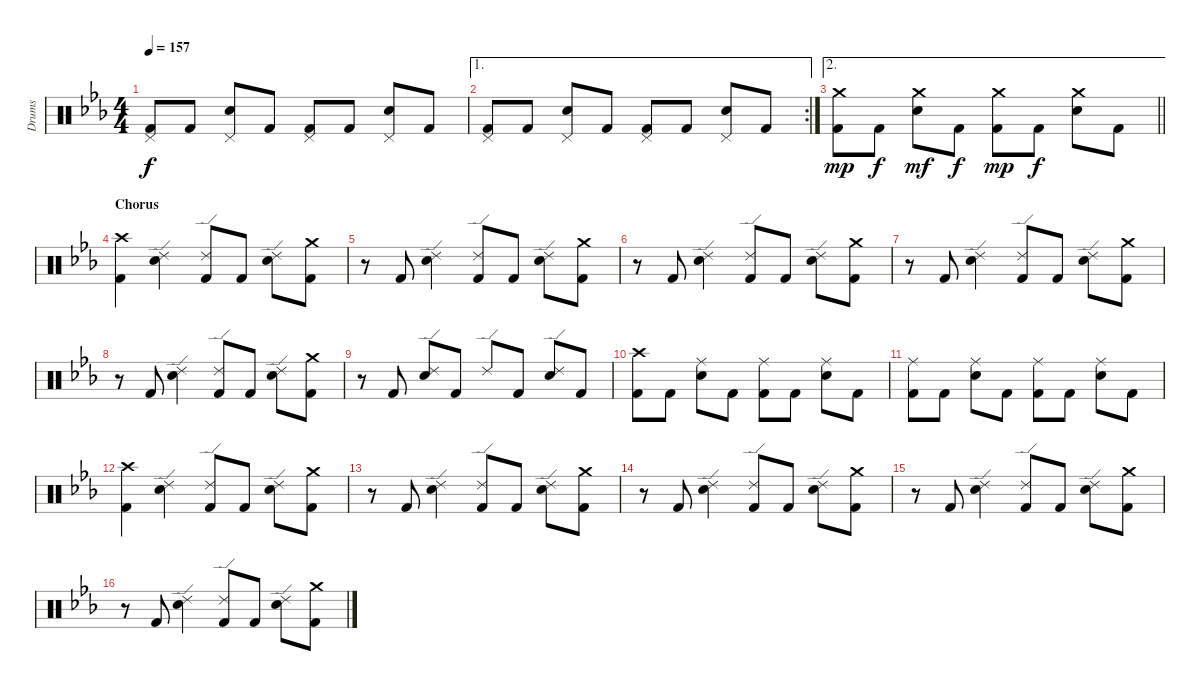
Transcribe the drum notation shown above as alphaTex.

\track ("Drums" "Drums") {instrument percussion}
\staff {score}
\articulation defaults
\ts (4 4)
\tempo 157
\clef neutral
\ks cminor
("Pedal Hi-Hat (hit)" "Kick (hit) 2").8{dy f} "Kick (hit) 2".8 ("Pedal Hi-Hat (hit)" "Electric Snare (hit)").8 "Kick (hit) 2".8 ("Pedal Hi-Hat (hit)" "Kick (hit) 2").8 "Kick (hit) 2".8 ("Pedal Hi-Hat (hit)" "Electric Snare (hit)").8 "Kick (hit) 2".8 |
\ae 1
\rc 2
("Pedal Hi-Hat (hit)" "Kick (hit) 2").8 "Kick (hit) 2".8 ("Pedal Hi-Hat (hit)" "Electric Snare (hit)").8 "Kick (hit) 2".8 ("Pedal Hi-Hat (hit)" "Kick (hit) 2").8 "Kick (hit) 2".8 ("Pedal Hi-Hat (hit)" "Electric Snare (hit)").8 "Kick (hit) 2".8 |
\ae 2
\barLineRight lightlight
("Crash medium (hit)" "Kick (hit) 2").8{dy mp} "Kick (hit) 2".8{dy f} ("Crash medium (hit)" "Electric Snare (hit)").8{dy mf} "Kick (hit) 2".8{dy f} ("Crash medium (hit)" "Kick (hit) 2").8{dy mp} "Kick (hit) 2".8{dy f} ("Crash medium (hit)" "Electric Snare (hit)").8 "Kick (hit) 2".8 |
\section ("" "Chorus")
("Crash high (hit)" "Kick (hit) 2").4 ("Ride (edge) 2" "Electric Snare (hit)").4 ("Ride (edge) 2" "Kick (hit) 2").8 "Kick (hit) 2".8 ("Ride (edge) 2" "Electric Snare (hit)").8 ("Crash medium (hit)" "Kick (hit) 2").8 |
r.8 "Kick (hit) 2".8 ("Ride (edge) 2" "Electric Snare (hit)").4 ("Ride (edge) 2" "Kick (hit) 2").8 "Kick (hit) 2".8 ("Ride (edge) 2" "Electric Snare (hit)").8 ("Crash medium (hit)" "Kick (hit) 2").8 |
r.8 "Kick (hit) 2".8 ("Ride (edge) 2" "Electric Snare (hit)").4 ("Ride (edge) 2" "Kick (hit) 2").8 "Kick (hit) 2".8 ("Ride (edge) 2" "Electric Snare (hit)").8 ("Crash medium (hit)" "Kick (hit) 2").8 |
r.8 "Kick (hit) 2".8 ("Ride (edge) 2" "Electric Snare (hit)").4 ("Ride (edge) 2" "Kick (hit) 2").8 "Kick (hit) 2".8 ("Ride (edge) 2" "Electric Snare (hit)").8 ("Crash medium (hit)" "Kick (hit) 2").8 |
r.8 "Kick (hit) 2".8 ("Ride (edge) 2" "Electric Snare (hit)").4 ("Ride (edge) 2" "Kick (hit) 2").8 "Kick (hit) 2".8 ("Ride (edge) 2" "Electric Snare (hit)").8 ("Crash medium (hit)" "Kick (hit) 2").8 |
r.8 "Kick (hit) 2".8 ("Ride (edge) 2" "Electric Snare (hit)").8 "Kick (hit) 2".8 "Ride (edge) 2".8 "Kick (hit) 2".8 ("Ride (edge) 2" "Electric Snare (hit)").8 "Kick (hit) 2".8 |
("Crash high (hit)" "Kick (hit) 2").8 "Kick (hit) 2".8 ("Ride (middle)" "Electric Snare (hit)").8 "Kick (hit) 2".8 ("Ride (middle)" "Kick (hit) 2").8 "Kick (hit) 2".8 ("Ride (middle)" "Electric Snare (hit)").8 "Kick (hit) 2".8 |
("Ride (middle)" "Kick (hit) 2").8 "Kick (hit) 2".8 ("Ride (middle)" "Electric Snare (hit)").8 "Kick (hit) 2".8 ("Ride (middle)" "Kick (hit) 2").8 "Kick (hit) 2".8 ("Ride (middle)" "Electric Snare (hit)").8 "Kick (hit) 2".8 |
("Crash high (hit)" "Kick (hit) 2").4 ("Ride (edge) 2" "Electric Snare (hit)").4 ("Ride (edge) 2" "Kick (hit) 2").8 "Kick (hit) 2".8 ("Ride (edge) 2" "Electric Snare (hit)").8 ("Crash medium (hit)" "Kick (hit) 2").8 |
r.8 "Kick (hit) 2".8 ("Ride (edge) 2" "Electric Snare (hit)").4 ("Ride (edge) 2" "Kick (hit) 2").8 "Kick (hit) 2".8 ("Ride (edge) 2" "Electric Snare (hit)").8 ("Crash medium (hit)" "Kick (hit) 2").8 |
r.8 "Kick (hit) 2".8 ("Ride (edge) 2" "Electric Snare (hit)").4 ("Ride (edge) 2" "Kick (hit) 2").8 "Kick (hit) 2".8 ("Ride (edge) 2" "Electric Snare (hit)").8 ("Crash medium (hit)" "Kick (hit) 2").8 |
r.8 "Kick (hit) 2".8 ("Ride (edge) 2" "Electric Snare (hit)").4 ("Ride (edge) 2" "Kick (hit) 2").8 "Kick (hit) 2".8 ("Ride (edge) 2" "Electric Snare (hit)").8 ("Crash medium (hit)" "Kick (hit) 2").8 |
r.8 "Kick (hit) 2".8 ("Ride (edge) 2" "Electric Snare (hit)").4 ("Ride (edge) 2" "Kick (hit) 2").8 "Kick (hit) 2".8 ("Ride (edge) 2" "Electric Snare (hit)").8 ("Crash medium (hit)" "Kick (hit) 2").8
